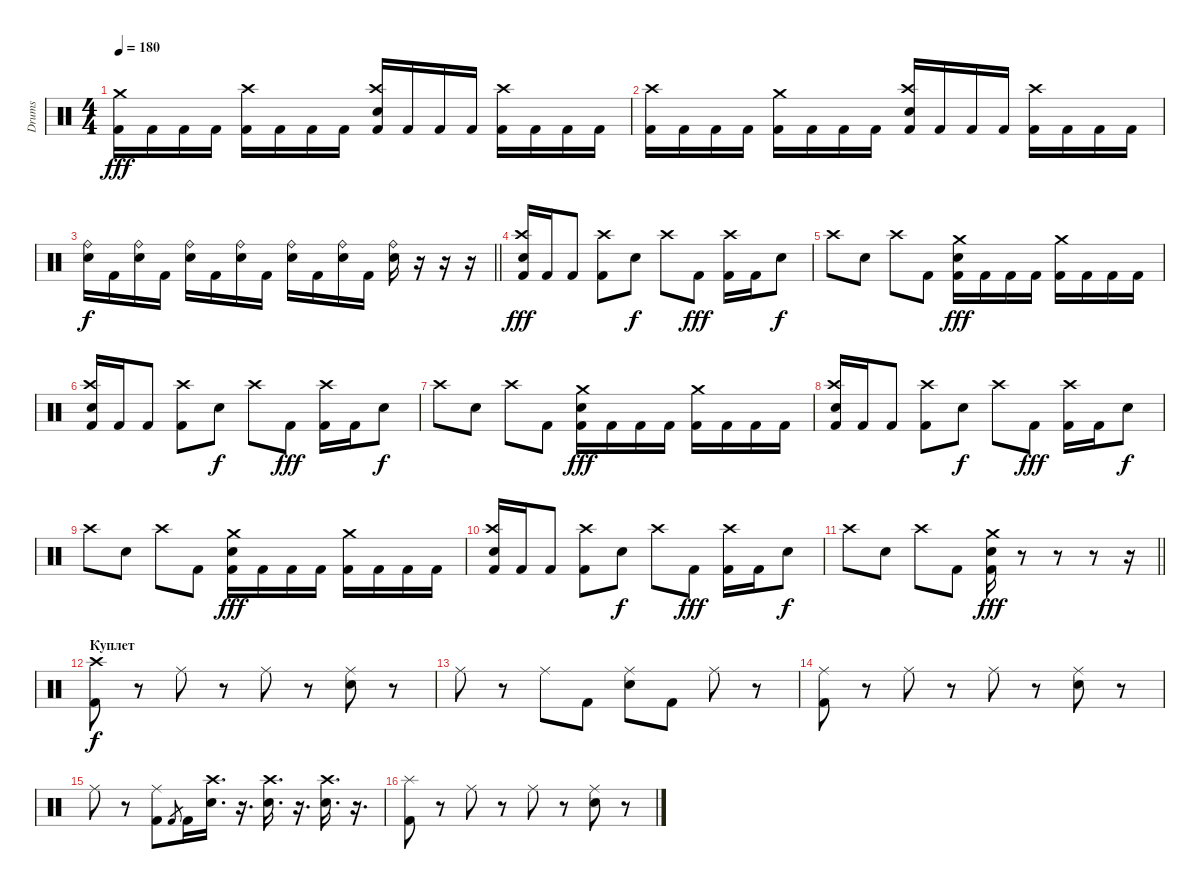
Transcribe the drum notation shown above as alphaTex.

\track ("Drums" "Drums") {instrument percussion}
\staff {score}
\articulation defaults
\ts (4 4)
\tempo 180
\clef neutral
\ks c
("Crash medium (hit)" "Kick (hit) 2").16{dy fff} "Kick (hit) 2".16 "Kick (hit) 2".16 "Kick (hit) 2".16 ("Crash high (hit)" "Kick (hit) 2").16 "Kick (hit) 2".16 "Kick (hit) 2".16 "Kick (hit) 2".16 ("Crash high (hit)" "Electric Snare (hit)" "Kick (hit) 2").16 "Kick (hit) 2".16 "Kick (hit) 2".16 "Kick (hit) 2".16 ("Crash high (hit)" "Kick (hit) 2").16 "Kick (hit) 2".16 "Kick (hit) 2".16 "Kick (hit) 2".16 |
("Crash high (hit)" "Kick (hit) 2").16 "Kick (hit) 2".16 "Kick (hit) 2".16 "Kick (hit) 2".16 ("Crash medium (hit)" "Kick (hit) 2").16 "Kick (hit) 2".16 "Kick (hit) 2".16 "Kick (hit) 2".16 ("Crash high (hit)" "Electric Snare (hit)" "Kick (hit) 2").16 "Kick (hit) 2".16 "Kick (hit) 2".16 "Kick (hit) 2".16 ("Crash high (hit)" "Kick (hit) 2").16 "Kick (hit) 2".16 "Kick (hit) 2".16 "Kick (hit) 2".16 |
\barLineRight lightlight
("Ride (bell)" "Electric Snare (hit)").16{dy f} "Kick (hit) 2".16 ("Ride (bell)" "Electric Snare (hit)").16 "Kick (hit) 2".16 ("Ride (bell)" "Electric Snare (hit)").16 "Kick (hit) 2".16 ("Ride (bell)" "Electric Snare (hit)").16 "Kick (hit) 2".16 ("Ride (bell)" "Electric Snare (hit)").16 "Kick (hit) 2".16 ("Ride (bell)" "Electric Snare (hit)").16 "Kick (hit) 2".16 ("Ride (bell)" "Electric Snare (hit)").16 r.16 r.16 r.16 |
\section ("" "")
("Crash high (hit)" "Electric Snare (hit)" "Kick (hit) 2").16{dy fff} "Kick (hit) 2".16 "Kick (hit) 2".8 ("Crash high (hit)" "Kick (hit) 2").8 "Electric Snare (hit)".8{dy f} "Crash high (hit)".8 "Kick (hit) 2".8{dy fff} ("Crash high (hit)" "Kick (hit) 2").16 "Kick (hit) 2".16 "Electric Snare (hit)".8{dy f} |
"Crash high (hit)".8 "Electric Snare (hit)".8 "Crash high (hit)".8 "Kick (hit) 2".8 ("Crash medium (hit)" "Electric Snare (hit)" "Kick (hit) 2").16{dy fff} "Kick (hit) 2".16 "Kick (hit) 2".16 "Kick (hit) 2".16 ("Crash medium (hit)" "Kick (hit) 2").16 "Kick (hit) 2".16 "Kick (hit) 2".16 "Kick (hit) 2".16 |
("Crash high (hit)" "Electric Snare (hit)" "Kick (hit) 2").16 "Kick (hit) 2".16 "Kick (hit) 2".8 ("Crash high (hit)" "Kick (hit) 2").8 "Electric Snare (hit)".8{dy f} "Crash high (hit)".8 "Kick (hit) 2".8{dy fff} ("Crash high (hit)" "Kick (hit) 2").16 "Kick (hit) 2".16 "Electric Snare (hit)".8{dy f} |
"Crash high (hit)".8 "Electric Snare (hit)".8 "Crash high (hit)".8 "Kick (hit) 2".8 ("Crash medium (hit)" "Electric Snare (hit)" "Kick (hit) 2").16{dy fff} "Kick (hit) 2".16 "Kick (hit) 2".16 "Kick (hit) 2".16 ("Crash medium (hit)" "Kick (hit) 2").16 "Kick (hit) 2".16 "Kick (hit) 2".16 "Kick (hit) 2".16 |
("Crash high (hit)" "Electric Snare (hit)" "Kick (hit) 2").16 "Kick (hit) 2".16 "Kick (hit) 2".8 ("Crash high (hit)" "Kick (hit) 2").8 "Electric Snare (hit)".8{dy f} "Crash high (hit)".8 "Kick (hit) 2".8{dy fff} ("Crash high (hit)" "Kick (hit) 2").16 "Kick (hit) 2".16 "Electric Snare (hit)".8{dy f} |
"Crash high (hit)".8 "Electric Snare (hit)".8 "Crash high (hit)".8 "Kick (hit) 2".8 ("Crash medium (hit)" "Electric Snare (hit)" "Kick (hit) 2").16{dy fff} "Kick (hit) 2".16 "Kick (hit) 2".16 "Kick (hit) 2".16 ("Crash medium (hit)" "Kick (hit) 2").16 "Kick (hit) 2".16 "Kick (hit) 2".16 "Kick (hit) 2".16 |
("Crash high (hit)" "Electric Snare (hit)" "Kick (hit) 2").16 "Kick (hit) 2".16 "Kick (hit) 2".8 ("Crash high (hit)" "Kick (hit) 2").8 "Electric Snare (hit)".8{dy f} "Crash high (hit)".8 "Kick (hit) 2".8{dy fff} ("Crash high (hit)" "Kick (hit) 2").16 "Kick (hit) 2".16 "Electric Snare (hit)".8{dy f} |
\barLineRight lightlight "Crash high (hit)".8 "Electric Snare (hit)".8 "Crash high (hit)".8 "Kick (hit) 2".8
("Crash medium (hit)" "Electric Snare (hit)" "Kick (hit) 2").16{dy fff} r.8 r.8 r.8 r.16 |
\section ("" "Куплет")
("Crash high (hit)" "Kick (hit) 2").8{dy f volume 8} r.8 "Ride (middle)".8 r.8 "Ride (middle)".8 r.8 ("Ride (middle)" "Electric Snare (hit)").8 r.8 |
"Ride (middle)".8 r.8 "Ride (middle)".8 "Kick (hit) 2".8 ("Ride (middle)" "Electric Snare (hit)").8 "Kick (hit) 2".8 "Ride (middle)".8 r.8 |
("Ride (middle)" "Kick (hit) 2").8 r.8 "Ride (middle)".8 r.8 "Ride (middle)".8 r.8 ("Ride (middle)" "Electric Snare (hit)").8 r.8 |
"Ride (middle)".8 r.8 ("Ride (middle)" "Kick (hit) 2").8 "Kick (hit) 2".8{gr} "Kick (hit) 2".16 ("Crash high (hit)" "Electric Snare (hit)").16{d} r.16{d} ("Crash high (hit)" "Electric Snare (hit)").16{d} r.16{d} ("Crash high (hit)" "Electric Snare (hit)").16{d} r.16{d} |
("Splash (hit)" "Kick (hit) 2").8 r.8 "Ride (middle)".8 r.8 "Ride (middle)".8 r.8 ("Ride (middle)" "Electric Snare (hit)").8 r.8
